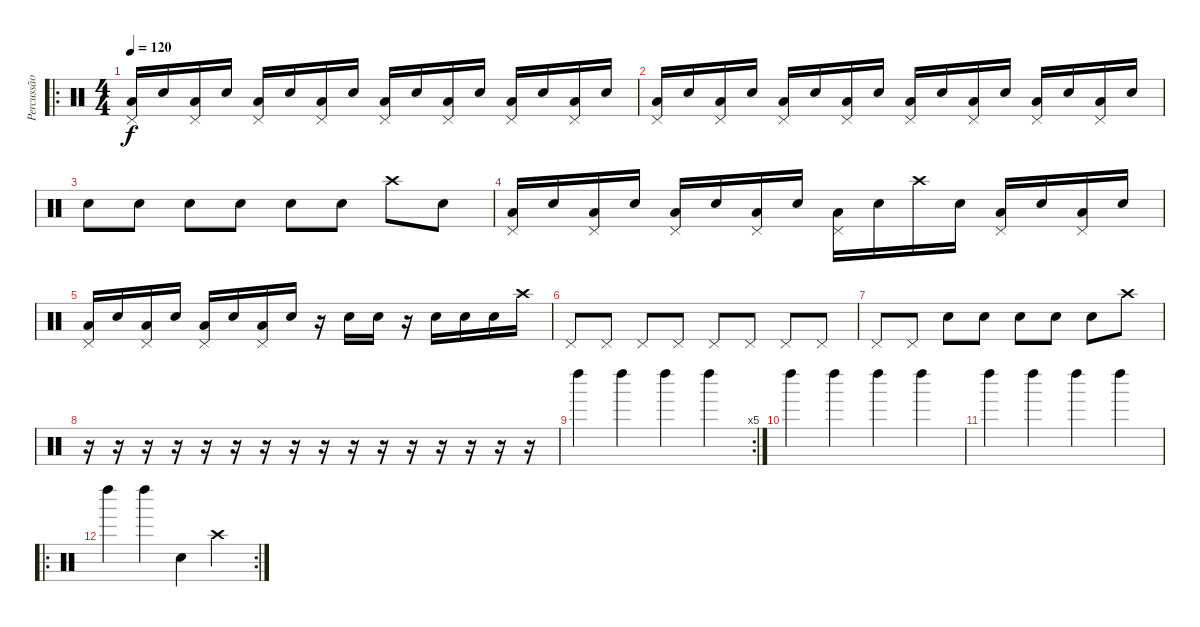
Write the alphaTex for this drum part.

\track ("Percussão" "Percussão") {instrument percussion}
\staff {score}
\articulation defaults
\ro
\ts (4 4)
\tempo 120
\clef neutral
\ks c
("Pedal Hi-Hat (hit)" "Low Floor Tom (hit)").16{dy f} "Snare (hit) 2".16 ("Pedal Hi-Hat (hit)" "Low Floor Tom (hit)").16 "Snare (hit) 2".16 ("Pedal Hi-Hat (hit)" "Low Floor Tom (hit)").16 "Snare (hit) 2".16 ("Pedal Hi-Hat (hit)" "Low Floor Tom (hit)").16 "Snare (hit) 2".16 ("Pedal Hi-Hat (hit)" "Low Floor Tom (hit)").16 "Snare (hit) 2".16 ("Pedal Hi-Hat (hit)" "Low Floor Tom (hit)").16 "Snare (hit) 2".16 ("Pedal Hi-Hat (hit)" "Low Floor Tom (hit)").16 "Snare (hit) 2".16 ("Pedal Hi-Hat (hit)" "Low Floor Tom (hit)").16 "Snare (hit) 2".16 |
("Pedal Hi-Hat (hit)" "Low Floor Tom (hit)").16 "Snare (hit) 2".16 ("Pedal Hi-Hat (hit)" "Low Floor Tom (hit)").16 "Snare (hit) 2".16 ("Pedal Hi-Hat (hit)" "Low Floor Tom (hit)").16 "Snare (hit) 2".16 ("Pedal Hi-Hat (hit)" "Low Floor Tom (hit)").16 "Snare (hit) 2".16 ("Pedal Hi-Hat (hit)" "Low Floor Tom (hit)").16 "Snare (hit) 2".16 ("Pedal Hi-Hat (hit)" "Low Floor Tom (hit)").16 "Snare (hit) 2".16 ("Pedal Hi-Hat (hit)" "Low Floor Tom (hit)").16 "Snare (hit) 2".16 ("Pedal Hi-Hat (hit)" "Low Floor Tom (hit)").16 "Snare (hit) 2".16 |
"Snare (hit) 2".8 "Snare (hit) 2".8 "Snare (hit) 2".8 "Snare (hit) 2".8 "Snare (hit) 2".8 "Snare (hit) 2".8 "Crash high (hit)".8 "Snare (hit) 2".8 |
("Pedal Hi-Hat (hit)" "Low Floor Tom (hit)").16 "Snare (hit) 2".16 ("Pedal Hi-Hat (hit)" "Low Floor Tom (hit)").16 "Snare (hit) 2".16 ("Pedal Hi-Hat (hit)" "Low Floor Tom (hit)").16 "Snare (hit) 2".16 ("Pedal Hi-Hat (hit)" "Low Floor Tom (hit)").16 "Snare (hit) 2".16 ("Pedal Hi-Hat (hit)" "Low Floor Tom (hit)").16 "Snare (hit) 2".16 "Crash high (hit)".16 "Snare (hit) 2".16 ("Pedal Hi-Hat (hit)" "Low Floor Tom (hit)").16 "Snare (hit) 2".16 ("Pedal Hi-Hat (hit)" "Low Floor Tom (hit)").16 "Snare (hit) 2".16 |
("Pedal Hi-Hat (hit)" "Low Floor Tom (hit)").16 "Snare (hit) 2".16 ("Pedal Hi-Hat (hit)" "Low Floor Tom (hit)").16 "Snare (hit) 2".16 ("Pedal Hi-Hat (hit)" "Low Floor Tom (hit)").16 "Snare (hit) 2".16 ("Pedal Hi-Hat (hit)" "Low Floor Tom (hit)").16 "Snare (hit) 2".16 r.16 "Snare (hit) 2".16 "Snare (hit) 2".16 r.16 "Snare (hit) 2".16 "Snare (hit) 2".16 "Snare (hit) 2".16 "Crash high (hit)".16 |
"Pedal Hi-Hat (hit)".8 "Pedal Hi-Hat (hit)".8 "Pedal Hi-Hat (hit)".8 "Pedal Hi-Hat (hit)".8 "Pedal Hi-Hat (hit)".8 "Pedal Hi-Hat (hit)".8 "Pedal Hi-Hat (hit)".8 "Pedal Hi-Hat (hit)".8 |
"Pedal Hi-Hat (hit)".8 "Pedal Hi-Hat (hit)".8 "Snare (hit) 2".8 "Snare (hit) 2".8 "Snare (hit) 2".8 "Snare (hit) 2".8 "Electric Snare (hit)".8 "Crash high (hit)".8 |
r.16 r.16 r.16 r.16 r.16 r.16 r.16 r.16 r.16 r.16 r.16 r.16 r.16 r.16 r.16 r.16 |
\rc 5 "Left Maraca (hit)".4 "Left Maraca (hit)".4 "Left Maraca (hit)".4 "Left Maraca (hit)".4
|
"Left Maraca (hit)".4 "Left Maraca (hit)".4 "Left Maraca (hit)".4 "Left Maraca (hit)".4 |
"Left Maraca (hit)".4 "Left Maraca (hit)".4 "Left Maraca (hit)".4 "Left Maraca (hit)".4 |
\ro
\rc 2 "Left Maraca (hit)".4 "Left Maraca (hit)".4 "Snare (hit) 2".4 "Crash high (hit)".4
